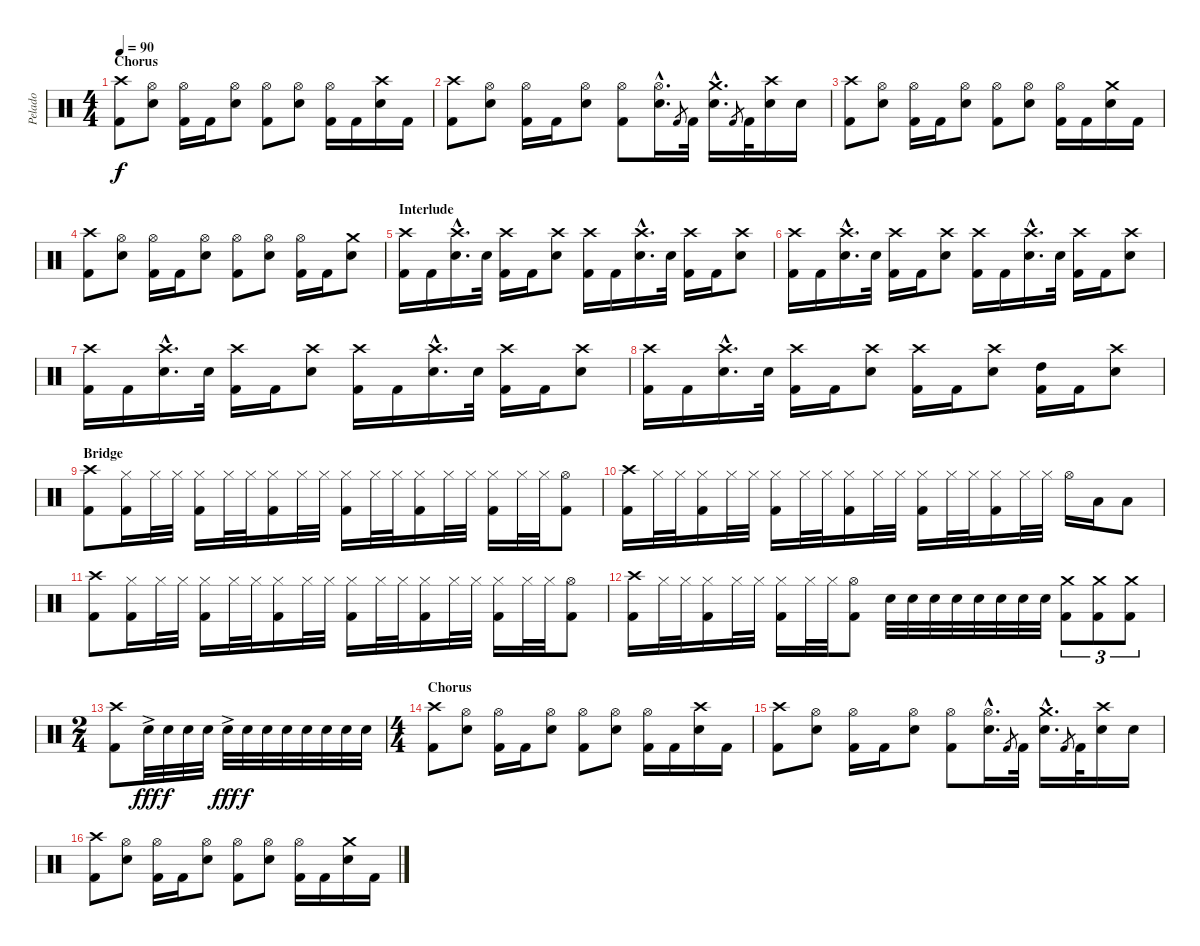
\track ("Pelado" "Pelado") {instrument percussion}
\staff {score}
\articulation defaults
\ts (4 4)
\section ("" "Chorus")
\tempo 90
\clef neutral
\ks c
("Crash high (hit)" "Kick (hit) 2").8{dy f} ("Hi-Hat (open)" "Electric Snare (hit)").8 ("Hi-Hat (open)" "Kick (hit) 2").16 "Kick (hit) 2".16 ("Hi-Hat (open)" "Electric Snare (hit)").8 ("Hi-Hat (open)" "Kick (hit) 2").8 ("Hi-Hat (open)" "Electric Snare (hit)").8 ("Hi-Hat (open)" "Kick (hit) 2").16 "Kick (hit) 2".16 ("Crash high (hit)" "Electric Snare (hit)").16 "Kick (hit) 2".16 |
("Crash high (hit)" "Kick (hit) 2").8 ("Hi-Hat (open)" "Electric Snare (hit)").8 ("Hi-Hat (open)" "Kick (hit) 2").16 "Kick (hit) 2".16 ("Hi-Hat (open)" "Electric Snare (hit)").8 ("Hi-Hat (open)" "Kick (hit) 2").8 ("Hi-Hat (open)"{hac} "Electric Snare (hit)"{hac}).16{d} "Kick (hit) 2".8{gr} "Kick (hit) 2".32 ("Crash medium (hit)"{hac} "Electric Snare (hit)"{hac}).16{d} "Kick (hit) 2".8{gr} "Kick (hit) 2".32 ("Crash high (hit)" "Electric Snare (hit)").16 "Electric Snare (hit)".16 |
("Crash high (hit)" "Kick (hit) 2").8 ("Hi-Hat (open)" "Electric Snare (hit)").8 ("Hi-Hat (open)" "Kick (hit) 2").16 "Kick (hit) 2".16 ("Hi-Hat (open)" "Electric Snare (hit)").8 ("Hi-Hat (open)" "Kick (hit) 2").8 ("Hi-Hat (open)" "Electric Snare (hit)").8 ("Hi-Hat (open)" "Kick (hit) 2").16 "Kick (hit) 2".16 ("Crash medium (hit)" "Electric Snare (hit)").16 "Kick (hit) 2".16 |
("Crash high (hit)" "Kick (hit) 2").8 ("Hi-Hat (open)" "Electric Snare (hit)").8 ("Hi-Hat (open)" "Kick (hit) 2").16 "Kick (hit) 2".16 ("Hi-Hat (open)" "Electric Snare (hit)").8 ("Hi-Hat (open)" "Kick (hit) 2").8 ("Hi-Hat (open)" "Electric Snare (hit)").8 ("Hi-Hat (open)" "Kick (hit) 2").16 "Kick (hit) 2".16 ("Crash medium (hit)" "Electric Snare (hit)").8 |
\section ("" "Interlude")
("Crash high (hit)" "Kick (hit) 2").16 "Kick (hit) 2".16 ("Crash high (hit)"{hac} "Electric Snare (hit)"{hac}).16{d} "Electric Snare (hit)".32 ("Crash high (hit)" "Kick (hit) 2").16 "Kick (hit) 2".16 ("Crash high (hit)" "Electric Snare (hit)").8 ("Crash high (hit)" "Kick (hit) 2").16 "Kick (hit) 2".16 ("Crash high (hit)"{hac} "Electric Snare (hit)"{hac}).16{d} "Electric Snare (hit)".32 ("Crash high (hit)" "Kick (hit) 2").16 "Kick (hit) 2".16 ("Crash high (hit)" "Electric Snare (hit)").8 |
("Crash high (hit)" "Kick (hit) 2").16 "Kick (hit) 2".16 ("Crash high (hit)"{hac} "Electric Snare (hit)"{hac}).16{d} "Electric Snare (hit)".32 ("Crash high (hit)" "Kick (hit) 2").16 "Kick (hit) 2".16 ("Crash high (hit)" "Electric Snare (hit)").8 ("Crash high (hit)" "Kick (hit) 2").16 "Kick (hit) 2".16 ("Crash high (hit)"{hac} "Electric Snare (hit)"{hac}).16{d} "Electric Snare (hit)".32 ("Crash high (hit)" "Kick (hit) 2").16 "Kick (hit) 2".16 ("Crash high (hit)" "Electric Snare (hit)").8 |
("Crash high (hit)" "Kick (hit) 2").16 "Kick (hit) 2".16 ("Crash high (hit)"{hac} "Electric Snare (hit)"{hac}).16{d} "Electric Snare (hit)".32 ("Crash high (hit)" "Kick (hit) 2").16 "Kick (hit) 2".16 ("Crash high (hit)" "Electric Snare (hit)").8 ("Crash high (hit)" "Kick (hit) 2").16 "Kick (hit) 2".16 ("Crash high (hit)"{hac} "Electric Snare (hit)"{hac}).16{d} "Electric Snare (hit)".32 ("Crash high (hit)" "Kick (hit) 2").16 "Kick (hit) 2".16 ("Crash high (hit)" "Electric Snare (hit)").8 |
("Crash high (hit)" "Kick (hit) 2").16 "Kick (hit) 2".16 ("Crash high (hit)"{hac} "Electric Snare (hit)"{hac}).16{d} "Electric Snare (hit)".32 ("Crash high (hit)" "Kick (hit) 2").16 "Kick (hit) 2".16 ("Crash high (hit)" "Electric Snare (hit)").8 ("Crash high (hit)" "Kick (hit) 2").16 "Kick (hit) 2".16 ("Crash high (hit)" "Electric Snare (hit)").8 ("High Tom (hit)" "Kick (hit) 2").16 "Kick (hit) 2".16 ("Crash high (hit)" "Electric Snare (hit)").8 |
\section ("" "Bridge")
("Crash high (hit)" "Kick (hit) 2").8 ("Hi-Hat (closed)" "Kick (hit) 2").16 "Hi-Hat (closed)".32 "Hi-Hat (closed)".32 ("Hi-Hat (closed)" "Kick (hit) 2").16 "Hi-Hat (closed)".32 "Hi-Hat (closed)".32 ("Hi-Hat (closed)" "Kick (hit) 2").16 "Hi-Hat (closed)".32 "Hi-Hat (closed)".32 ("Hi-Hat (closed)" "Kick (hit) 2").16 "Hi-Hat (closed)".32 "Hi-Hat (closed)".32 ("Hi-Hat (closed)" "Kick (hit) 2").16 "Hi-Hat (closed)".32 "Hi-Hat (closed)".32 ("Hi-Hat (closed)" "Kick (hit) 2").16 "Hi-Hat (closed)".32 "Hi-Hat (closed)".32 ("Hi-Hat (open)" "Kick (hit) 2").8 |
("Crash high (hit)" "Kick (hit) 2").16 "Hi-Hat (closed)".32 "Hi-Hat (closed)".32 ("Hi-Hat (closed)" "Kick (hit) 2").16 "Hi-Hat (closed)".32 "Hi-Hat (closed)".32 ("Hi-Hat (closed)" "Kick (hit) 2").16 "Hi-Hat (closed)".32 "Hi-Hat (closed)".32 ("Hi-Hat (closed)" "Kick (hit) 2").16 "Hi-Hat (closed)".32 "Hi-Hat (closed)".32 ("Hi-Hat (closed)" "Kick (hit) 2").16 "Hi-Hat (closed)".32 "Hi-Hat (closed)".32 ("Hi-Hat (closed)" "Kick (hit) 2").16 "Hi-Hat (closed)".32 "Hi-Hat (closed)".32 "Hi-Hat (open)".16 "Low Tom (hit)".16 "Low Tom (hit)".8 |
("Crash high (hit)" "Kick (hit) 2").8 ("Hi-Hat (closed)" "Kick (hit) 2").16 "Hi-Hat (closed)".32 "Hi-Hat (closed)".32 ("Hi-Hat (closed)" "Kick (hit) 2").16 "Hi-Hat (closed)".32 "Hi-Hat (closed)".32 ("Hi-Hat (closed)" "Kick (hit) 2").16 "Hi-Hat (closed)".32 "Hi-Hat (closed)".32 ("Hi-Hat (closed)" "Kick (hit) 2").16 "Hi-Hat (closed)".32 "Hi-Hat (closed)".32 ("Hi-Hat (closed)" "Kick (hit) 2").16 "Hi-Hat (closed)".32 "Hi-Hat (closed)".32 ("Hi-Hat (closed)" "Kick (hit) 2").16 "Hi-Hat (closed)".32 "Hi-Hat (closed)".32 ("Hi-Hat (open)" "Kick (hit) 2").8 |
("Crash high (hit)" "Kick (hit) 2").16 "Hi-Hat (closed)".32 "Hi-Hat (closed)".32 ("Hi-Hat (closed)" "Kick (hit) 2").16 "Hi-Hat (closed)".32 "Hi-Hat (closed)".32 ("Hi-Hat (closed)" "Kick (hit) 2").16 "Hi-Hat (closed)".32 "Hi-Hat (closed)".32 ("Hi-Hat (open)" "Kick (hit) 2").8 "Electric Snare (hit)".32 "Electric Snare (hit)".32 "Electric Snare (hit)".32 "Electric Snare (hit)".32 "Electric Snare (hit)".32 "Electric Snare (hit)".32 "Electric Snare (hit)".32 "Electric Snare (hit)".32 ("Crash medium (hit)" "Kick (hit) 2").8{tu (3 2)} ("Crash medium (hit)" "Kick (hit) 2").8{tu (3 2)} ("Crash medium (hit)" "Kick (hit) 2").8{tu (3 2)} |
\ts (2 4)
("Crash high (hit)" "Kick (hit) 2").8 "Electric Snare (hit)"{ac}.32{dy fff} "Electric Snare (hit)".32{dy f} "Electric Snare (hit)".32 "Electric Snare (hit)".32 "Electric Snare (hit)"{ac}.32{dy fff} "Electric Snare (hit)".32{dy f} "Electric Snare (hit)".32 "Electric Snare (hit)".32 "Electric Snare (hit)".32 "Electric Snare (hit)".32 "Electric Snare (hit)".32 "Electric Snare (hit)".32 |
\ts (4 4)
\section ("" "Chorus")
("Crash high (hit)" "Kick (hit) 2").8 ("Hi-Hat (open)" "Electric Snare (hit)").8 ("Hi-Hat (open)" "Kick (hit) 2").16 "Kick (hit) 2".16 ("Hi-Hat (open)" "Electric Snare (hit)").8 ("Hi-Hat (open)" "Kick (hit) 2").8 ("Hi-Hat (open)" "Electric Snare (hit)").8 ("Hi-Hat (open)" "Kick (hit) 2").16 "Kick (hit) 2".16 ("Crash high (hit)" "Electric Snare (hit)").16 "Kick (hit) 2".16 |
("Crash high (hit)" "Kick (hit) 2").8 ("Hi-Hat (open)" "Electric Snare (hit)").8 ("Hi-Hat (open)" "Kick (hit) 2").16 "Kick (hit) 2".16 ("Hi-Hat (open)" "Electric Snare (hit)").8 ("Hi-Hat (open)" "Kick (hit) 2").8 ("Hi-Hat (open)"{hac} "Electric Snare (hit)"{hac}).16{d} "Kick (hit) 2".8{gr} "Kick (hit) 2".32 ("Crash medium (hit)"{hac} "Electric Snare (hit)"{hac}).16{d} "Kick (hit) 2".8{gr} "Kick (hit) 2".32 ("Crash high (hit)" "Electric Snare (hit)").16 "Electric Snare (hit)".16 |
("Crash high (hit)" "Kick (hit) 2").8 ("Hi-Hat (open)" "Electric Snare (hit)").8 ("Hi-Hat (open)" "Kick (hit) 2").16 "Kick (hit) 2".16 ("Hi-Hat (open)" "Electric Snare (hit)").8 ("Hi-Hat (open)" "Kick (hit) 2").8 ("Hi-Hat (open)" "Electric Snare (hit)").8 ("Hi-Hat (open)" "Kick (hit) 2").16 "Kick (hit) 2".16 ("Crash medium (hit)" "Electric Snare (hit)").16 "Kick (hit) 2".16
